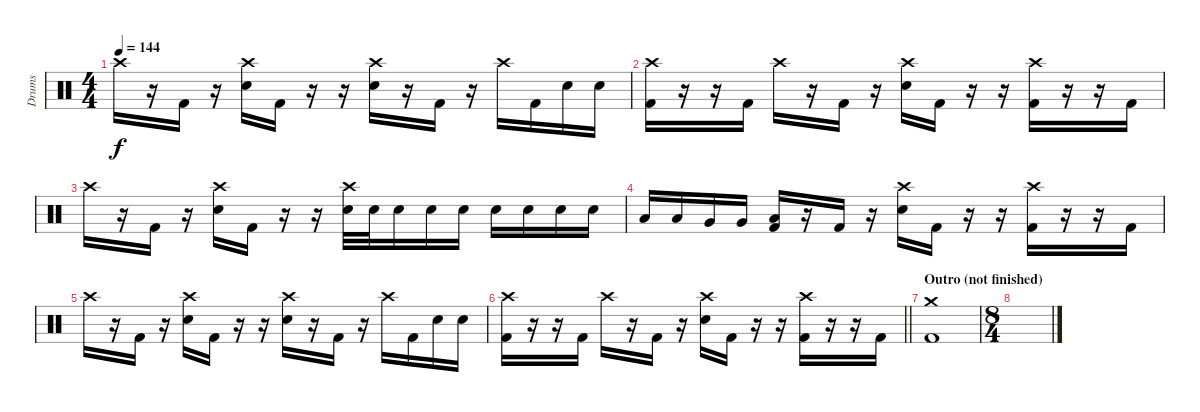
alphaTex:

\track ("Drums" "Drums") {instrument percussion}
\staff {score}
\articulation defaults
\ts (4 4)
\tempo 144
\clef neutral
\ks c "Crash high (hit)".16{dy f}
r.16 "Kick (hit) 2".16 r.16 ("Crash high (hit)" "Snare (hit) 2").16 "Kick (hit) 2".16 r.16 r.16 ("Crash high (hit)" "Snare (hit) 2").16 r.16 "Kick (hit) 2".16 r.16 "Crash high (hit)".16 "Kick (hit) 2".16 "Snare (hit) 2".16 "Snare (hit) 2".16 |
("Crash high (hit)" "Kick (hit) 2").16 r.16 r.16 "Kick (hit) 2".16 "Crash high (hit)".16 r.16 "Kick (hit) 2".16 r.16 ("Crash high (hit)" "Snare (hit) 2").16 "Kick (hit) 2".16 r.16 r.16 ("Crash high (hit)" "Kick (hit) 2").16 r.16 r.16 "Kick (hit) 2".16 |
"Crash high (hit)".16 r.16 "Kick (hit) 2".16 r.16 ("Crash high (hit)" "Snare (hit) 2").16 "Kick (hit) 2".16 r.16 r.16 ("Crash high (hit)" "Snare (hit) 2").32 "Snare (hit) 2".32 "Snare (hit) 2".16 "Snare (hit) 2".16 "Snare (hit) 2".16 "Snare (hit) 2".16 "Snare (hit) 2".16 "Snare (hit) 2".16 "Snare (hit) 2".16 |
"Low Tom (hit)".16 "Low Tom (hit)".16 "Very Low Tom (hit)".16 "Very Low Tom (hit)".16 ("Low Floor Tom (hit)" "Kick (hit) 2").16 r.16 "Kick (hit) 2".16 r.16 ("Crash high (hit)" "Snare (hit) 2").16 "Kick (hit) 2".16 r.16 r.16 ("Crash high (hit)" "Kick (hit) 2").16 r.16 r.16 "Kick (hit) 2".16 |
"Crash high (hit)".16 r.16 "Kick (hit) 2".16 r.16 ("Crash high (hit)" "Snare (hit) 2").16 "Kick (hit) 2".16 r.16 r.16 ("Crash high (hit)" "Snare (hit) 2").16 r.16 "Kick (hit) 2".16 r.16 "Crash high (hit)".16 "Kick (hit) 2".16 "Snare (hit) 2".16 "Snare (hit) 2".16 |
\barLineRight lightlight
("Crash high (hit)" "Kick (hit) 2").16 r.16 r.16 "Kick (hit) 2".16 "Crash high (hit)".16 r.16 "Kick (hit) 2".16 r.16 ("Crash high (hit)" "Snare (hit) 2").16 "Kick (hit) 2".16 r.16 r.16 ("Crash high (hit)" "Kick (hit) 2").16 r.16 r.16 "Kick (hit) 2".16 |
\section ("" "Outro (not finished)")
("Crash medium (hit)" "Kick (hit) 2").1 |
\ts (8 4)
